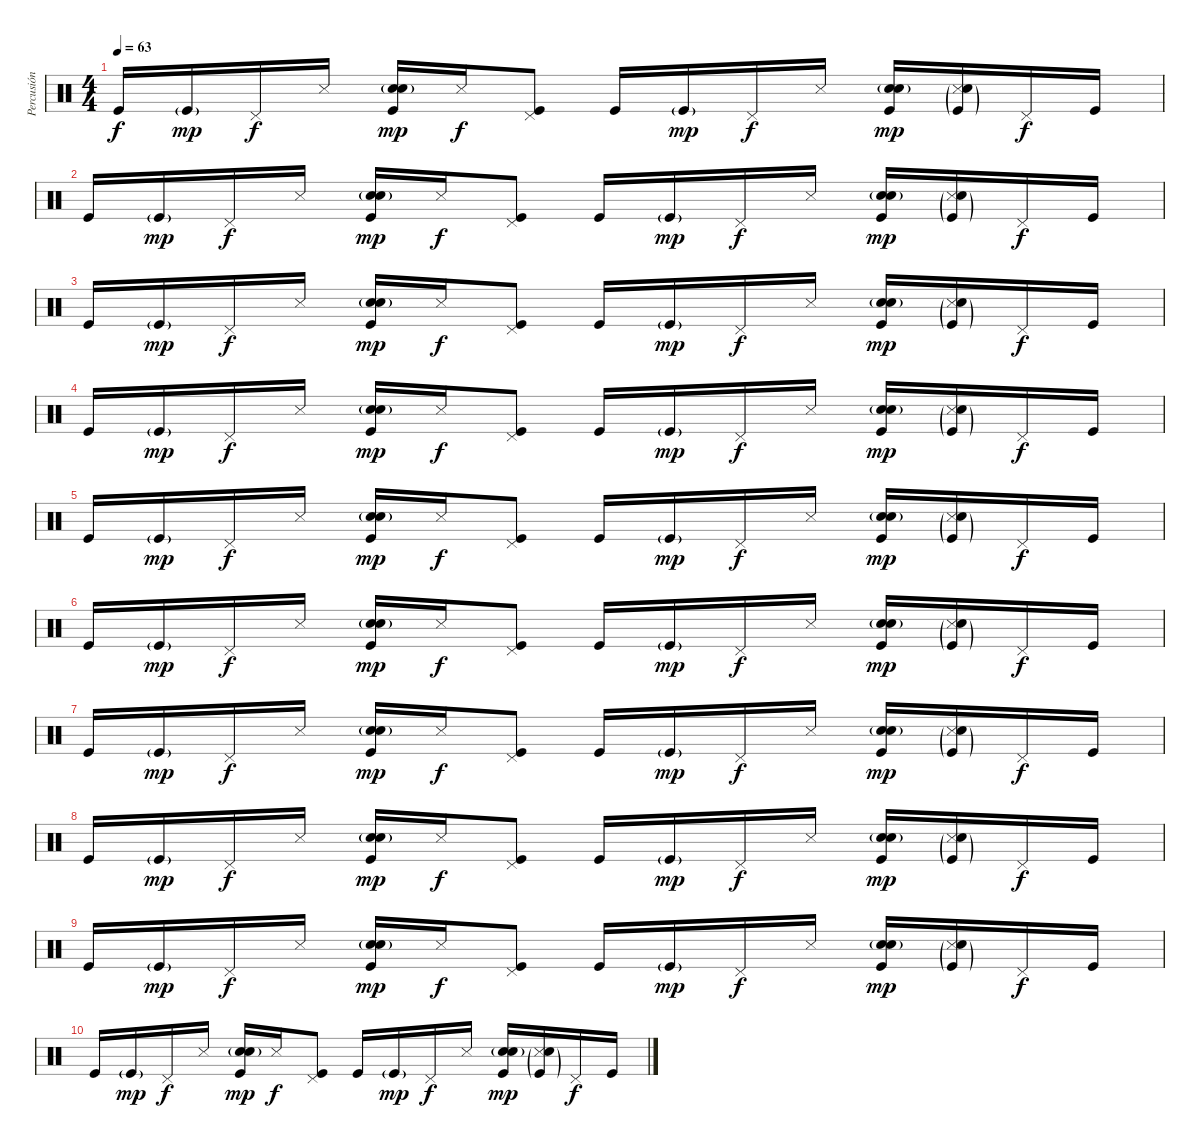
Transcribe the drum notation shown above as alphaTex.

\track ("Percusión" "Percusión") {instrument percussion}
\staff {score}
\articulation defaults
\ts (4 4)
\tempo 63
\clef neutral
\ks c "Kick (hit)".16{dy f} "Kick (hit)"{g}.16{dy mp} "Pedal Hi-Hat (hit)".16{dy f} "Snare (side stick) 3".16
("Kick (hit)" "Snare (hit) 2"{g} "Hand Clap (hit)").16{dy mp} "Snare (side stick) 3".16{dy f} ("Kick (hit)" "Pedal Hi-Hat (hit)").8 "Kick (hit)".16 "Kick (hit)"{g}.16{dy mp} "Pedal Hi-Hat (hit)".16{dy f} "Snare (side stick) 3".16 ("Kick (hit)" "Snare (hit) 2"{g} "Hand Clap (hit)").16{dy mp} ("Kick (hit)"{g} "Snare (side stick) 3" "Hand Clap (hit)"{g}).16 "Pedal Hi-Hat (hit)".16{dy f} "Kick (hit)".16 |
"Kick (hit)".16 "Kick (hit)"{g}.16{dy mp} "Pedal Hi-Hat (hit)".16{dy f} "Snare (side stick) 3".16 ("Kick (hit)" "Snare (hit) 2"{g} "Hand Clap (hit)").16{dy mp} "Snare (side stick) 3".16{dy f} ("Kick (hit)" "Pedal Hi-Hat (hit)").8 "Kick (hit)".16 "Kick (hit)"{g}.16{dy mp} "Pedal Hi-Hat (hit)".16{dy f} "Snare (side stick) 3".16 ("Kick (hit)" "Snare (hit) 2"{g} "Hand Clap (hit)").16{dy mp} ("Kick (hit)"{g} "Snare (side stick) 3" "Hand Clap (hit)"{g}).16 "Pedal Hi-Hat (hit)".16{dy f} "Kick (hit)".16 |
"Kick (hit)".16 "Kick (hit)"{g}.16{dy mp} "Pedal Hi-Hat (hit)".16{dy f} "Snare (side stick) 3".16 ("Kick (hit)" "Snare (hit) 2"{g} "Hand Clap (hit)").16{dy mp} "Snare (side stick) 3".16{dy f} ("Kick (hit)" "Pedal Hi-Hat (hit)").8 "Kick (hit)".16 "Kick (hit)"{g}.16{dy mp} "Pedal Hi-Hat (hit)".16{dy f} "Snare (side stick) 3".16 ("Kick (hit)" "Snare (hit) 2"{g} "Hand Clap (hit)").16{dy mp} ("Kick (hit)"{g} "Snare (side stick) 3" "Hand Clap (hit)"{g}).16 "Pedal Hi-Hat (hit)".16{dy f} "Kick (hit)".16 |
"Kick (hit)".16 "Kick (hit)"{g}.16{dy mp} "Pedal Hi-Hat (hit)".16{dy f} "Snare (side stick) 3".16 ("Kick (hit)" "Snare (hit) 2"{g} "Hand Clap (hit)").16{dy mp} "Snare (side stick) 3".16{dy f} ("Kick (hit)" "Pedal Hi-Hat (hit)").8 "Kick (hit)".16 "Kick (hit)"{g}.16{dy mp} "Pedal Hi-Hat (hit)".16{dy f} "Snare (side stick) 3".16 ("Kick (hit)" "Snare (hit) 2"{g} "Hand Clap (hit)").16{dy mp} ("Kick (hit)"{g} "Snare (side stick) 3" "Hand Clap (hit)"{g}).16 "Pedal Hi-Hat (hit)".16{dy f} "Kick (hit)".16 |
"Kick (hit)".16 "Kick (hit)"{g}.16{dy mp} "Pedal Hi-Hat (hit)".16{dy f} "Snare (side stick) 3".16 ("Kick (hit)" "Snare (hit) 2"{g} "Hand Clap (hit)").16{dy mp} "Snare (side stick) 3".16{dy f} ("Kick (hit)" "Pedal Hi-Hat (hit)").8 "Kick (hit)".16 "Kick (hit)"{g}.16{dy mp} "Pedal Hi-Hat (hit)".16{dy f} "Snare (side stick) 3".16 ("Kick (hit)" "Snare (hit) 2"{g} "Hand Clap (hit)").16{dy mp} ("Kick (hit)"{g} "Snare (side stick) 3" "Hand Clap (hit)"{g}).16 "Pedal Hi-Hat (hit)".16{dy f} "Kick (hit)".16 |
"Kick (hit)".16 "Kick (hit)"{g}.16{dy mp} "Pedal Hi-Hat (hit)".16{dy f} "Snare (side stick) 3".16 ("Kick (hit)" "Snare (hit) 2"{g} "Hand Clap (hit)").16{dy mp} "Snare (side stick) 3".16{dy f} ("Kick (hit)" "Pedal Hi-Hat (hit)").8 "Kick (hit)".16 "Kick (hit)"{g}.16{dy mp} "Pedal Hi-Hat (hit)".16{dy f} "Snare (side stick) 3".16 ("Kick (hit)" "Snare (hit) 2"{g} "Hand Clap (hit)").16{dy mp} ("Kick (hit)"{g} "Snare (side stick) 3" "Hand Clap (hit)"{g}).16 "Pedal Hi-Hat (hit)".16{dy f} "Kick (hit)".16 |
"Kick (hit)".16 "Kick (hit)"{g}.16{dy mp} "Pedal Hi-Hat (hit)".16{dy f} "Snare (side stick) 3".16 ("Kick (hit)" "Snare (hit) 2"{g} "Hand Clap (hit)").16{dy mp} "Snare (side stick) 3".16{dy f} ("Kick (hit)" "Pedal Hi-Hat (hit)").8 "Kick (hit)".16 "Kick (hit)"{g}.16{dy mp} "Pedal Hi-Hat (hit)".16{dy f} "Snare (side stick) 3".16 ("Kick (hit)" "Snare (hit) 2"{g} "Hand Clap (hit)").16{dy mp} ("Kick (hit)"{g} "Snare (side stick) 3" "Hand Clap (hit)"{g}).16 "Pedal Hi-Hat (hit)".16{dy f} "Kick (hit)".16 |
"Kick (hit)".16 "Kick (hit)"{g}.16{dy mp} "Pedal Hi-Hat (hit)".16{dy f} "Snare (side stick) 3".16 ("Kick (hit)" "Snare (hit) 2"{g} "Hand Clap (hit)").16{dy mp} "Snare (side stick) 3".16{dy f} ("Kick (hit)" "Pedal Hi-Hat (hit)").8 "Kick (hit)".16 "Kick (hit)"{g}.16{dy mp} "Pedal Hi-Hat (hit)".16{dy f} "Snare (side stick) 3".16 ("Kick (hit)" "Snare (hit) 2"{g} "Hand Clap (hit)").16{dy mp} ("Kick (hit)"{g} "Snare (side stick) 3" "Hand Clap (hit)"{g}).16 "Pedal Hi-Hat (hit)".16{dy f} "Kick (hit)".16 |
"Kick (hit)".16{volume 0} "Kick (hit)"{g}.16{dy mp} "Pedal Hi-Hat (hit)".16{dy f} "Snare (side stick) 3".16 ("Kick (hit)" "Snare (hit) 2"{g} "Hand Clap (hit)").16{dy mp} "Snare (side stick) 3".16{dy f} ("Kick (hit)" "Pedal Hi-Hat (hit)").8 "Kick (hit)".16 "Kick (hit)"{g}.16{dy mp} "Pedal Hi-Hat (hit)".16{dy f} "Snare (side stick) 3".16 ("Kick (hit)" "Snare (hit) 2"{g} "Hand Clap (hit)").16{dy mp} ("Kick (hit)"{g} "Snare (side stick) 3" "Hand Clap (hit)"{g}).16 "Pedal Hi-Hat (hit)".16{dy f} "Kick (hit)".16 |
"Kick (hit)".16 "Kick (hit)"{g}.16{dy mp} "Pedal Hi-Hat (hit)".16{dy f} "Snare (side stick) 3".16 ("Kick (hit)" "Snare (hit) 2"{g} "Hand Clap (hit)").16{dy mp} "Snare (side stick) 3".16{dy f} ("Kick (hit)" "Pedal Hi-Hat (hit)").8 "Kick (hit)".16 "Kick (hit)"{g}.16{dy mp} "Pedal Hi-Hat (hit)".16{dy f} "Snare (side stick) 3".16 ("Kick (hit)" "Snare (hit) 2"{g} "Hand Clap (hit)").16{dy mp} ("Kick (hit)"{g} "Snare (side stick) 3" "Hand Clap (hit)"{g}).16 "Pedal Hi-Hat (hit)".16{dy f} "Kick (hit)".16
